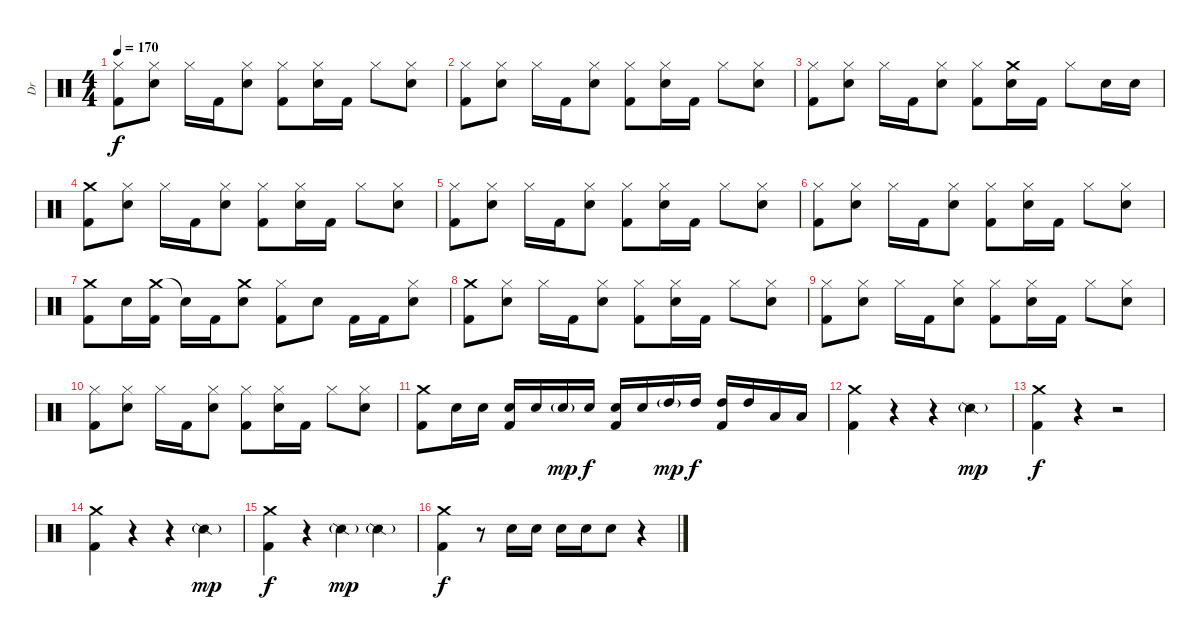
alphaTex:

\track ("Dr" "Dr") {instrument percussion}
\staff {score}
\articulation defaults
\ts (4 4)
\tempo 170
\clef neutral
\ks c
("Hi-Hat (closed)" "Kick (hit) 2").8{dy f} ("Hi-Hat (closed)" "Electric Snare (hit)").8 "Hi-Hat (closed)".16 "Kick (hit) 2".16 ("Hi-Hat (closed)" "Electric Snare (hit)").8 ("Hi-Hat (closed)" "Kick (hit) 2").8 ("Hi-Hat (closed)" "Electric Snare (hit)").16 "Kick (hit) 2".16 "Hi-Hat (closed)".8 ("Hi-Hat (closed)" "Electric Snare (hit)").8 |
("Hi-Hat (closed)" "Kick (hit) 2").8 ("Hi-Hat (closed)" "Electric Snare (hit)").8 "Hi-Hat (closed)".16 "Kick (hit) 2".16 ("Hi-Hat (closed)" "Electric Snare (hit)").8 ("Hi-Hat (closed)" "Kick (hit) 2").8 ("Hi-Hat (closed)" "Electric Snare (hit)").16 "Kick (hit) 2".16 "Hi-Hat (closed)".8 ("Hi-Hat (closed)" "Electric Snare (hit)").8 |
("Hi-Hat (closed)" "Kick (hit) 2").8 ("Hi-Hat (closed)" "Electric Snare (hit)").8 "Hi-Hat (closed)".16 "Kick (hit) 2".16 ("Hi-Hat (closed)" "Electric Snare (hit)").8 ("Hi-Hat (closed)" "Kick (hit) 2").8 ("Crash medium (hit)" "Electric Snare (hit)").16 "Kick (hit) 2".16 "Hi-Hat (closed)".8 "Electric Snare (hit)".16 "Electric Snare (hit)".16 |
("Crash medium (hit)" "Kick (hit) 2").8 ("Hi-Hat (closed)" "Electric Snare (hit)").8 "Hi-Hat (closed)".16 "Kick (hit) 2".16 ("Hi-Hat (closed)" "Electric Snare (hit)").8 ("Hi-Hat (closed)" "Kick (hit) 2").8 ("Hi-Hat (closed)" "Electric Snare (hit)").16 "Kick (hit) 2".16 "Hi-Hat (closed)".8 ("Hi-Hat (closed)" "Electric Snare (hit)").8 |
("Hi-Hat (closed)" "Kick (hit) 2").8 ("Hi-Hat (closed)" "Electric Snare (hit)").8 "Hi-Hat (closed)".16 "Kick (hit) 2".16 ("Hi-Hat (closed)" "Electric Snare (hit)").8 ("Hi-Hat (closed)" "Kick (hit) 2").8 ("Hi-Hat (closed)" "Electric Snare (hit)").16 "Kick (hit) 2".16 "Hi-Hat (closed)".8 ("Hi-Hat (closed)" "Electric Snare (hit)").8 |
("Hi-Hat (closed)" "Kick (hit) 2").8 ("Hi-Hat (closed)" "Electric Snare (hit)").8 "Hi-Hat (closed)".16 "Kick (hit) 2".16 ("Hi-Hat (closed)" "Electric Snare (hit)").8 ("Hi-Hat (closed)" "Kick (hit) 2").8 ("Hi-Hat (closed)" "Electric Snare (hit)").16 "Kick (hit) 2".16 "Hi-Hat (closed)".8 ("Hi-Hat (closed)" "Electric Snare (hit)").8 |
("Crash medium (hit)" "Kick (hit) 2").8 "Electric Snare (hit)".16 ("Crash medium (hit)" "Kick (hit) 2").16 "Snare (hit)"{t}.16 "Kick (hit) 2".16 ("Crash medium (hit)" "Electric Snare (hit)").8 ("Hi-Hat (closed)" "Kick (hit) 2").8 "Electric Snare (hit)".8 "Kick (hit) 2".16 "Kick (hit) 2".16 ("Hi-Hat (closed)" "Electric Snare (hit)").8 |
("Crash medium (hit)" "Kick (hit) 2").8 ("Hi-Hat (closed)" "Electric Snare (hit)").8 "Hi-Hat (closed)".16 "Kick (hit) 2".16 ("Hi-Hat (closed)" "Electric Snare (hit)").8 ("Hi-Hat (closed)" "Kick (hit) 2").8 ("Hi-Hat (closed)" "Electric Snare (hit)").16 "Kick (hit) 2".16 "Hi-Hat (closed)".8 ("Hi-Hat (closed)" "Electric Snare (hit)").8 |
("Hi-Hat (closed)" "Kick (hit) 2").8 ("Hi-Hat (closed)" "Electric Snare (hit)").8 "Hi-Hat (closed)".16 "Kick (hit) 2".16 ("Hi-Hat (closed)" "Electric Snare (hit)").8 ("Hi-Hat (closed)" "Kick (hit) 2").8 ("Hi-Hat (closed)" "Electric Snare (hit)").16 "Kick (hit) 2".16 "Hi-Hat (closed)".8 ("Hi-Hat (closed)" "Electric Snare (hit)").8 |
("Hi-Hat (closed)" "Kick (hit) 2").8 ("Hi-Hat (closed)" "Electric Snare (hit)").8 "Hi-Hat (closed)".16 "Kick (hit) 2".16 ("Hi-Hat (closed)" "Electric Snare (hit)").8 ("Hi-Hat (closed)" "Kick (hit) 2").8 ("Hi-Hat (closed)" "Electric Snare (hit)").16 "Kick (hit) 2".16 "Hi-Hat (closed)".8 ("Hi-Hat (closed)" "Electric Snare (hit)").8 |
("Crash medium (hit)" "Kick (hit) 2").8 "Electric Snare (hit)".16 "Electric Snare (hit)".16 ("Electric Snare (hit)" "Kick (hit) 2").16 "Electric Snare (hit)".16 "Electric Snare (hit)"{g}.16{dy mp} "Electric Snare (hit)".16{dy f} ("Electric Snare (hit)" "Kick (hit) 2").16 "Electric Snare (hit)".16 "High Tom (hit)"{g}.16{dy mp} "High Tom (hit)".16{dy f} ("High Tom (hit)" "Kick (hit) 2").16 "High Tom (hit)".16 "Low Tom (hit)".16 "Low Tom (hit)".16 |
("Crash medium (hit)" "Kick (hit) 2").4 r.4 r.4 "Snare (side stick) 2"{g}.4{dy mp} |
("Crash medium (hit)" "Kick (hit) 2").4{dy f} r.4 r.2 |
("Crash medium (hit)" "Kick (hit) 2").4 r.4 r.4 "Snare (side stick) 2"{g}.4{dy mp} |
("Crash medium (hit)" "Kick (hit) 2").4{dy f} r.4 "Snare (side stick) 2"{g}.4{dy mp} "Snare (side stick) 2"{g}.4 |
("Crash medium (hit)" "Kick (hit) 2").4{dy f} r.8 "Electric Snare (hit)".16 "Electric Snare (hit)".16 "Electric Snare (hit)".16 "Electric Snare (hit)".16 "Electric Snare (hit)".8 r.4
